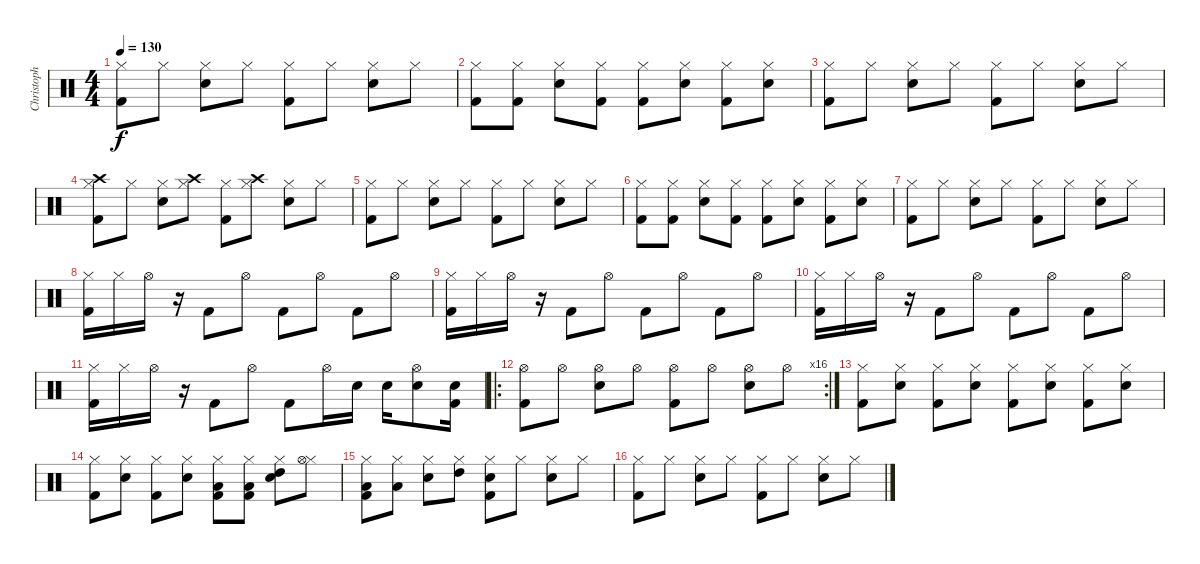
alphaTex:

\track ("Christoph Schneider" "Christoph ") {instrument percussion}
\staff {score}
\articulation defaults
\ts (4 4)
\tempo 130
\clef neutral
\ks c
("Hi-Hat (closed)" "Kick (hit) 2").8{dy f} "Hi-Hat (closed)".8 ("Hi-Hat (closed)" "Electric Snare (hit)").8 "Hi-Hat (closed)".8 ("Hi-Hat (closed)" "Kick (hit) 2").8 "Hi-Hat (closed)".8 ("Hi-Hat (closed)" "Electric Snare (hit)").8 "Hi-Hat (closed)".8 |
("Hi-Hat (closed)" "Kick (hit) 2").8 ("Hi-Hat (closed)" "Kick (hit) 2").8 ("Hi-Hat (closed)" "Electric Snare (hit)").8 ("Hi-Hat (closed)" "Kick (hit) 2").8 ("Hi-Hat (closed)" "Kick (hit) 2").8 ("Hi-Hat (closed)" "Electric Snare (hit)").8 ("Hi-Hat (closed)" "Kick (hit) 2").8 ("Hi-Hat (closed)" "Electric Snare (hit)").8 |
("Hi-Hat (closed)" "Kick (hit) 2").8 "Hi-Hat (closed)".8 ("Hi-Hat (closed)" "Electric Snare (hit)").8 "Hi-Hat (closed)".8 ("Hi-Hat (closed)" "Kick (hit) 2").8 "Hi-Hat (closed)".8 ("Hi-Hat (closed)" "Electric Snare (hit)").8 "Hi-Hat (closed)".8 |
("Hi-Hat (closed)" "Crash high (hit)" "Kick (hit) 2").8 "Hi-Hat (closed)".8 ("Hi-Hat (closed)" "Electric Snare (hit)").8 ("Hi-Hat (closed)" "Crash high (hit)").8 ("Hi-Hat (closed)" "Kick (hit) 2").8 ("Hi-Hat (closed)" "Crash high (hit)").8 ("Hi-Hat (closed)" "Electric Snare (hit)").8 "Hi-Hat (closed)".8 |
("Hi-Hat (closed)" "Kick (hit) 2").8 "Hi-Hat (closed)".8 ("Hi-Hat (closed)" "Electric Snare (hit)").8 "Hi-Hat (closed)".8 ("Hi-Hat (closed)" "Kick (hit) 2").8 "Hi-Hat (closed)".8 ("Hi-Hat (closed)" "Electric Snare (hit)").8 "Hi-Hat (closed)".8 |
("Hi-Hat (closed)" "Kick (hit) 2").8 ("Hi-Hat (closed)" "Kick (hit) 2").8 ("Hi-Hat (closed)" "Electric Snare (hit)").8 ("Hi-Hat (closed)" "Kick (hit) 2").8 ("Hi-Hat (closed)" "Kick (hit) 2").8 ("Hi-Hat (closed)" "Electric Snare (hit)").8 ("Hi-Hat (closed)" "Kick (hit) 2").8 ("Hi-Hat (closed)" "Electric Snare (hit)").8 |
("Hi-Hat (closed)" "Kick (hit) 2").8 "Hi-Hat (closed)".8 ("Hi-Hat (closed)" "Electric Snare (hit)").8 "Hi-Hat (closed)".8 ("Hi-Hat (closed)" "Kick (hit) 2").8 "Hi-Hat (closed)".8 ("Hi-Hat (closed)" "Electric Snare (hit)").8 "Hi-Hat (closed)".8 |
("Hi-Hat (closed)" "Kick (hit) 2").16 "Hi-Hat (closed)".16 "Hi-Hat (open)".16 r.16 "Kick (hit) 2".8 "Hi-Hat (open)".8 "Kick (hit) 2".8 "Hi-Hat (open)".8 "Kick (hit) 2".8 "Hi-Hat (open)".8 |
("Hi-Hat (closed)" "Kick (hit) 2").16 "Hi-Hat (closed)".16 "Hi-Hat (open)".16 r.16 "Kick (hit) 2".8 "Hi-Hat (open)".8 "Kick (hit) 2".8 "Hi-Hat (open)".8 "Kick (hit) 2".8 "Hi-Hat (open)".8 |
("Hi-Hat (closed)" "Kick (hit) 2").16 "Hi-Hat (closed)".16 "Hi-Hat (open)".16 r.16 "Kick (hit) 2".8 "Hi-Hat (open)".8 "Kick (hit) 2".8 "Hi-Hat (open)".8 "Kick (hit) 2".8 "Hi-Hat (open)".8 |
("Hi-Hat (closed)" "Kick (hit) 2").16 "Hi-Hat (closed)".16 "Hi-Hat (open)".16 r.16 "Kick (hit) 2".8 "Hi-Hat (open)".8 "Kick (hit) 2".8 "Hi-Hat (open)".16 "Electric Snare (hit)".16 "Electric Snare (hit)".16 ("Hi-Hat (open)" "Electric Snare (hit)").8 ("Snare (hit) 2" "Kick (hit) 2").16 |
\ro
\rc 16
("Hi-Hat (open)" "Kick (hit) 2").8 "Hi-Hat (open)".8 ("Hi-Hat (open)" "Electric Snare (hit)").8 "Hi-Hat (open)".8 ("Hi-Hat (open)" "Kick (hit) 2").8 "Hi-Hat (open)".8 ("Hi-Hat (open)" "Electric Snare (hit)").8 "Hi-Hat (open)".8 |
("Hi-Hat (closed)" "Kick (hit) 2").8 ("Hi-Hat (closed)" "Electric Snare (hit)").8 ("Hi-Hat (closed)" "Kick (hit) 2").8 ("Hi-Hat (closed)" "Electric Snare (hit)").8 ("Hi-Hat (closed)" "Kick (hit) 2").8 ("Hi-Hat (closed)" "Electric Snare (hit)").8 ("Hi-Hat (closed)" "Kick (hit) 2").8 ("Hi-Hat (closed)" "Electric Snare (hit)").8 |
("Hi-Hat (closed)" "Kick (hit) 2").8 ("Hi-Hat (closed)" "Electric Snare (hit)").8 ("Hi-Hat (closed)" "Kick (hit) 2").8 ("Hi-Hat (closed)" "Electric Snare (hit)").8 ("Hi-Hat (closed)" "Low Tom (hit)" "Kick (hit) 2").8 ("Hi-Hat (closed)" "Low Tom (hit)" "Kick (hit) 2").8 ("Hi-Hat (closed)" "High Tom (hit)" "Electric Snare (hit)").8 ("Hi-Hat (closed)" "Hi-Hat (open)").8 |
("Hi-Hat (closed)" "Low Tom (hit)" "Kick (hit) 2").8 ("Hi-Hat (closed)" "Low Tom (hit)").8 ("Hi-Hat (closed)" "Electric Snare (hit)").8 ("Hi-Hat (closed)" "High Tom (hit)").8 ("Hi-Hat (closed)" "Electric Snare (hit)" "Kick (hit) 2").8 "Hi-Hat (closed)".8 ("Hi-Hat (closed)" "Electric Snare (hit)").8 "Hi-Hat (closed)".8 |
("Hi-Hat (closed)" "Kick (hit) 2").8 "Hi-Hat (closed)".8 ("Hi-Hat (closed)" "Electric Snare (hit)").8 "Hi-Hat (closed)".8 ("Hi-Hat (closed)" "Kick (hit) 2").8 "Hi-Hat (closed)".8 ("Hi-Hat (closed)" "Electric Snare (hit)").8 "Hi-Hat (closed)".8
